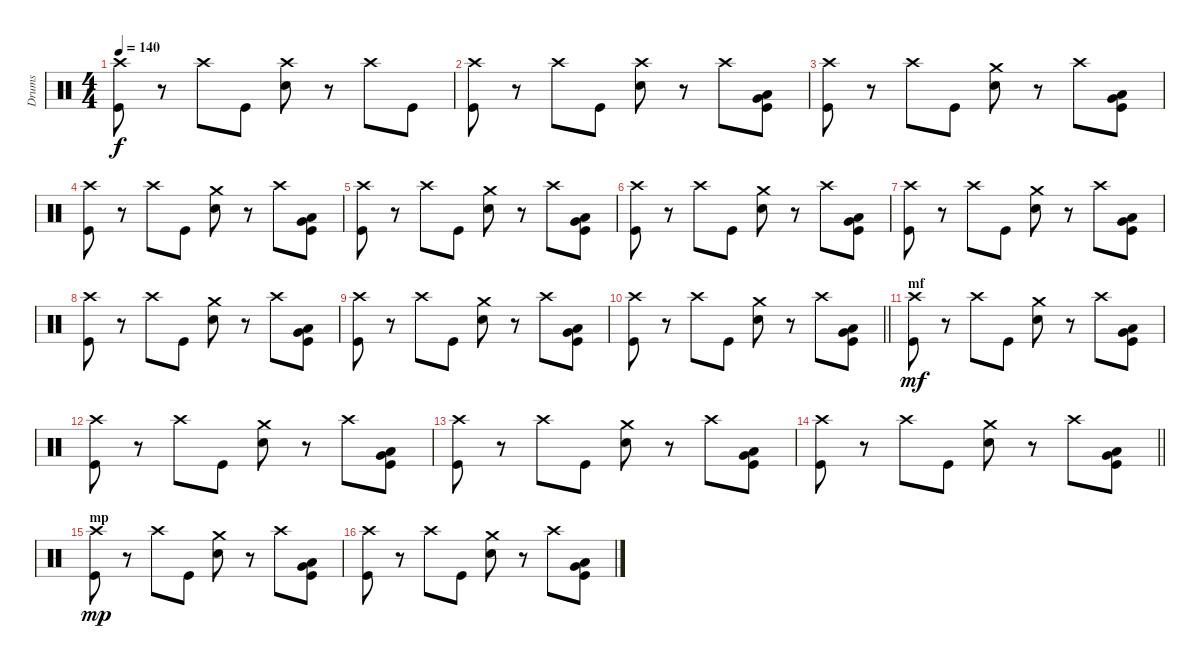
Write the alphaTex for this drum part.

\track ("Drums" "Drums") {instrument percussion}
\staff {score}
\articulation defaults
\ts (4 4)
\tempo 140
\clef neutral
\ks c
("Crash high (hit)" "Kick (hit)").8{dy f} r.8 "Crash high (hit)".8 "Kick (hit)".8 ("Crash high (hit)" "Snare (hit) 2").8 r.8 "Crash high (hit)".8 "Kick (hit)".8 |
("Crash high (hit)" "Kick (hit)").8 r.8 "Crash high (hit)".8 "Kick (hit)".8 ("Crash high (hit)" "Snare (hit) 2").8 r.8 "Crash high (hit)".8 ("Low Tom (hit)" "Very Low Tom (hit)" "Kick (hit)").8 |
("Crash high (hit)" "Kick (hit)").8 r.8 "Crash high (hit)".8 "Kick (hit)".8 ("Crash medium (hit)" "Snare (hit) 2").8 r.8 "Crash high (hit)".8 ("Low Tom (hit)" "Very Low Tom (hit)" "Kick (hit)").8 |
("Crash high (hit)" "Kick (hit)").8 r.8 "Crash high (hit)".8 "Kick (hit)".8 ("Crash medium (hit)" "Snare (hit) 2").8 r.8 "Crash high (hit)".8 ("Low Tom (hit)" "Very Low Tom (hit)" "Kick (hit)").8 |
("Crash high (hit)" "Kick (hit)").8 r.8 "Crash high (hit)".8 "Kick (hit)".8 ("Crash medium (hit)" "Snare (hit) 2").8 r.8 "Crash high (hit)".8 ("Low Tom (hit)" "Very Low Tom (hit)" "Kick (hit)").8 |
("Crash high (hit)" "Kick (hit)").8 r.8 "Crash high (hit)".8 "Kick (hit)".8 ("Crash medium (hit)" "Snare (hit) 2").8 r.8 "Crash high (hit)".8 ("Low Tom (hit)" "Very Low Tom (hit)" "Kick (hit)").8 |
("Crash high (hit)" "Kick (hit)").8 r.8 "Crash high (hit)".8 "Kick (hit)".8 ("Crash medium (hit)" "Snare (hit) 2").8 r.8 "Crash high (hit)".8 ("Low Tom (hit)" "Very Low Tom (hit)" "Kick (hit)").8 |
("Crash high (hit)" "Kick (hit)").8 r.8 "Crash high (hit)".8 "Kick (hit)".8 ("Crash medium (hit)" "Snare (hit) 2").8 r.8 "Crash high (hit)".8 ("Low Tom (hit)" "Very Low Tom (hit)" "Kick (hit)").8 |
("Crash high (hit)" "Kick (hit)").8 r.8 "Crash high (hit)".8 "Kick (hit)".8 ("Crash medium (hit)" "Snare (hit) 2").8 r.8 "Crash high (hit)".8 ("Low Tom (hit)" "Very Low Tom (hit)" "Kick (hit)").8 |
\barLineRight lightlight
("Crash high (hit)" "Kick (hit)").8 r.8 "Crash high (hit)".8 "Kick (hit)".8 ("Crash medium (hit)" "Snare (hit) 2").8 r.8 "Crash high (hit)".8 ("Low Tom (hit)" "Very Low Tom (hit)" "Kick (hit)").8 |
\section ("" "mf")
("Crash high (hit)" "Kick (hit)").8{dy mf} r.8 "Crash high (hit)".8 "Kick (hit)".8 ("Crash medium (hit)" "Snare (hit) 2").8 r.8 "Crash high (hit)".8 ("Low Tom (hit)" "Very Low Tom (hit)" "Kick (hit)").8 |
("Crash high (hit)" "Kick (hit)").8 r.8 "Crash high (hit)".8 "Kick (hit)".8 ("Crash medium (hit)" "Snare (hit) 2").8 r.8 "Crash high (hit)".8 ("Low Tom (hit)" "Very Low Tom (hit)" "Kick (hit)").8 |
("Crash high (hit)" "Kick (hit)").8 r.8 "Crash high (hit)".8 "Kick (hit)".8 ("Crash medium (hit)" "Snare (hit) 2").8 r.8 "Crash high (hit)".8 ("Low Tom (hit)" "Very Low Tom (hit)" "Kick (hit)").8 |
\barLineRight lightlight
("Crash high (hit)" "Kick (hit)").8 r.8 "Crash high (hit)".8 "Kick (hit)".8 ("Crash medium (hit)" "Snare (hit) 2").8 r.8 "Crash high (hit)".8 ("Low Tom (hit)" "Very Low Tom (hit)" "Kick (hit)").8 |
\section ("" "mp")
("Crash high (hit)" "Kick (hit)").8{dy mp} r.8 "Crash high (hit)".8 "Kick (hit)".8 ("Crash medium (hit)" "Snare (hit) 2").8 r.8 "Crash high (hit)".8 ("Low Tom (hit)" "Very Low Tom (hit)" "Kick (hit)").8 |
("Crash high (hit)" "Kick (hit)").8 r.8 "Crash high (hit)".8 "Kick (hit)".8 ("Crash medium (hit)" "Snare (hit) 2").8 r.8 "Crash high (hit)".8 ("Low Tom (hit)" "Very Low Tom (hit)" "Kick (hit)").8
